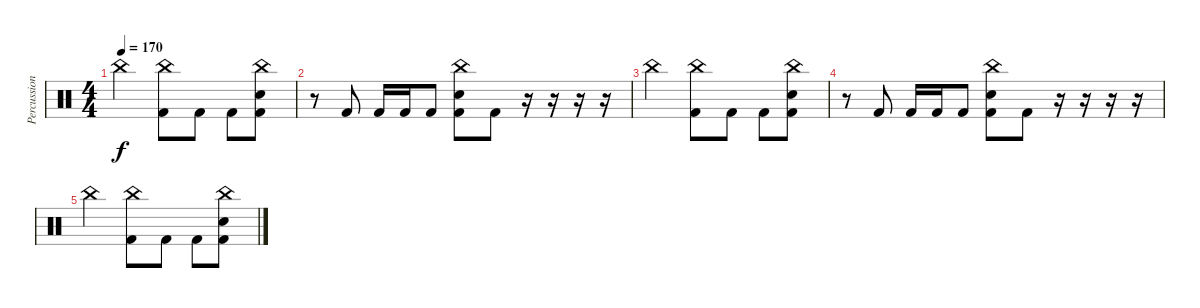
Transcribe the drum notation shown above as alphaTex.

\track ("Percussions" "Percussion") {instrument percussion}
\staff {score}
\articulation defaults
\ts (4 4)
\tempo 170
\clef neutral
\ks c "China (hit)".2{dy f}
("China (hit)" "Kick (hit) 2").8 "Kick (hit) 2".8 "Kick (hit) 2".8 ("China (hit)" "Electric Snare (hit)" "Kick (hit) 2").8 |
r.8 "Kick (hit) 2".8 "Kick (hit) 2".16 "Kick (hit) 2".16 "Kick (hit) 2".8 ("China (hit)" "Electric Snare (hit)" "Kick (hit) 2").8 "Kick (hit) 2".8 r.16 r.16 r.16 r.16 |
"China (hit)".2 ("China (hit)" "Kick (hit) 2").8 "Kick (hit) 2".8 "Kick (hit) 2".8 ("China (hit)" "Electric Snare (hit)" "Kick (hit) 2").8 |
r.8 "Kick (hit) 2".8 "Kick (hit) 2".16 "Kick (hit) 2".16 "Kick (hit) 2".8 ("China (hit)" "Electric Snare (hit)" "Kick (hit) 2").8 "Kick (hit) 2".8 r.16 r.16 r.16 r.16 |
"China (hit)".2 ("China (hit)" "Kick (hit) 2").8 "Kick (hit) 2".8 "Kick (hit) 2".8 ("China (hit)" "Electric Snare (hit)" "Kick (hit) 2").8
